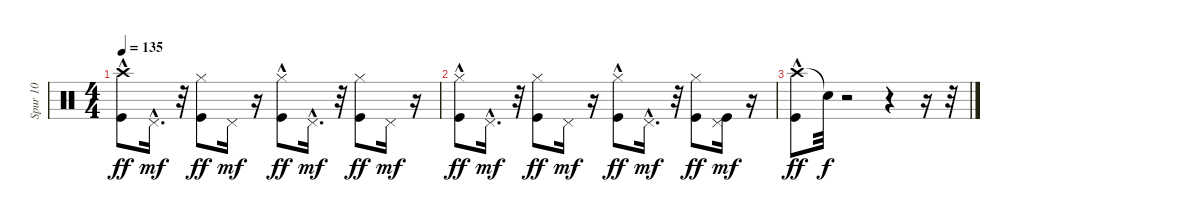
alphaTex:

\track ("Spur 10" "Spur 10") {instrument percussion}
\staff {score}
\articulation defaults
\ts (4 4)
\tempo 135
\clef neutral
\ks c
("Crash high (hit)"{hac} "Kick (hit)").8{dy ff} "Pedal Hi-Hat (hit)"{hac}.16{d dy mf} r.32 ("Hi-Hat (closed)" "Kick (hit)").8{dy ff} "Pedal Hi-Hat (hit)".16{dy mf} r.16 ("Hi-Hat (closed)"{hac} "Kick (hit)").8{dy ff} "Pedal Hi-Hat (hit)"{hac}.16{d dy mf} r.32 ("Hi-Hat (closed)" "Kick (hit)").8{dy ff} "Pedal Hi-Hat (hit)".16{dy mf} r.16 |
("Hi-Hat (closed)"{hac} "Kick (hit)").8{dy ff} "Pedal Hi-Hat (hit)"{hac}.16{d dy mf} r.32 ("Hi-Hat (closed)" "Kick (hit)").8{dy ff} "Pedal Hi-Hat (hit)".16{dy mf} r.16 ("Hi-Hat (closed)"{hac} "Kick (hit)").8{dy ff} "Pedal Hi-Hat (hit)"{hac}.16{d dy mf} r.32 ("Hi-Hat (closed)" "Kick (hit)").8{dy ff} ("Kick (hit)" "Pedal Hi-Hat (hit)").16{dy mf} r.16 |
("Crash high (hit)"{hac} "Kick (hit)").8{dy ff} "Snare (hit)"{t}.32{dy f} r.2 r.4 r.16 r.32
